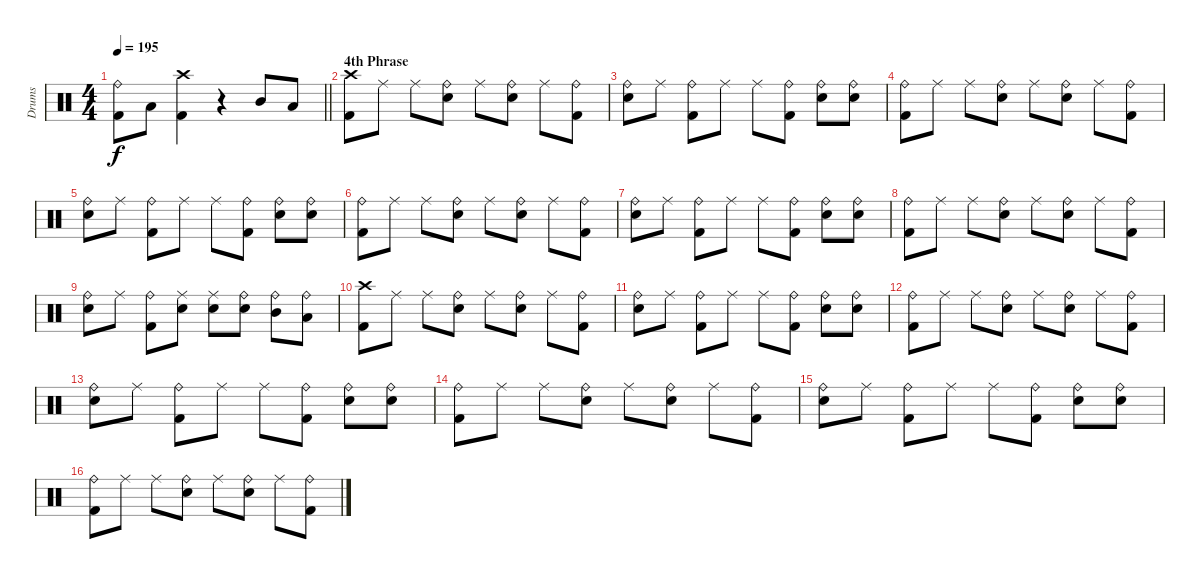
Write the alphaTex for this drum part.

\track ("Drums" "Drums") {instrument percussion}
\staff {score}
\articulation defaults
\ts (4 4)
\tempo 195
\clef neutral
\barLineRight lightlight
\ks c
("Ride (bell)" "Kick (hit) 2").8{dy f} "Low Floor Tom (hit)".8 ("Crash high (hit)" "Kick (hit) 2").4 r.4 "Mid Tom (hit)".8 "Low Floor Tom (hit)".8 |
\section ("" "4th Phrase")
("Crash high (hit)" "Kick (hit) 2").8 "Ride (middle)".8 "Ride (middle)".8 ("Ride (bell)" "Snare (hit) 2").8 "Ride (middle)".8 ("Ride (bell)" "Snare (hit) 2").8 "Ride (middle)".8 ("Ride (bell)" "Kick (hit) 2").8 |
("Ride (bell)" "Snare (hit) 2").8 "Ride (middle)".8 ("Ride (bell)" "Kick (hit) 2").8 "Ride (middle)".8 "Ride (middle)".8 ("Ride (bell)" "Kick (hit) 2").8 ("Ride (bell)" "Snare (hit) 2").8 ("Ride (bell)" "Snare (hit) 2").8 |
("Ride (bell)" "Kick (hit) 2").8 "Ride (middle)".8 "Ride (middle)".8 ("Ride (bell)" "Snare (hit) 2").8 "Ride (middle)".8 ("Ride (bell)" "Snare (hit) 2").8 "Ride (middle)".8 ("Ride (bell)" "Kick (hit) 2").8 |
("Ride (bell)" "Snare (hit) 2").8 "Ride (middle)".8 ("Ride (bell)" "Kick (hit) 2").8 "Ride (middle)".8 "Ride (middle)".8 ("Ride (bell)" "Kick (hit) 2").8 ("Ride (bell)" "Snare (hit) 2").8 ("Ride (bell)" "Snare (hit) 2").8 |
("Ride (bell)" "Kick (hit) 2").8 "Ride (middle)".8 "Ride (middle)".8 ("Ride (bell)" "Snare (hit) 2").8 "Ride (middle)".8 ("Ride (bell)" "Snare (hit) 2").8 "Ride (middle)".8 ("Ride (bell)" "Kick (hit) 2").8 |
("Ride (bell)" "Snare (hit) 2").8 "Ride (middle)".8 ("Ride (bell)" "Kick (hit) 2").8 "Ride (middle)".8 "Ride (middle)".8 ("Ride (bell)" "Kick (hit) 2").8 ("Ride (bell)" "Snare (hit) 2").8 ("Ride (bell)" "Snare (hit) 2").8 |
("Ride (bell)" "Kick (hit) 2").8 "Ride (middle)".8 "Ride (middle)".8 ("Ride (bell)" "Snare (hit) 2").8 "Ride (middle)".8 ("Ride (bell)" "Snare (hit) 2").8 "Ride (middle)".8 ("Ride (bell)" "Kick (hit) 2").8 |
("Ride (bell)" "Snare (hit) 2").8 "Ride (middle)".8 ("Ride (bell)" "Kick (hit) 2").8 ("Ride (middle)" "Snare (hit) 2").8 ("Ride (middle)" "Snare (hit) 2").8 ("Ride (bell)" "Snare (hit) 2").8 ("Ride (bell)" "Mid Tom (hit)").8 ("Ride (bell)" "Low Floor Tom (hit)").8 |
("Crash high (hit)" "Kick (hit) 2").8 "Ride (middle)".8 "Ride (middle)".8 ("Ride (bell)" "Snare (hit) 2").8 "Ride (middle)".8 ("Ride (bell)" "Snare (hit) 2").8 "Ride (middle)".8 ("Ride (bell)" "Kick (hit) 2").8 |
("Ride (bell)" "Snare (hit) 2").8 "Ride (middle)".8 ("Ride (bell)" "Kick (hit) 2").8 "Ride (middle)".8 "Ride (middle)".8 ("Ride (bell)" "Kick (hit) 2").8 ("Ride (bell)" "Snare (hit) 2").8 ("Ride (bell)" "Snare (hit) 2").8 |
("Ride (bell)" "Kick (hit) 2").8 "Ride (middle)".8 "Ride (middle)".8 ("Ride (bell)" "Snare (hit) 2").8 "Ride (middle)".8 ("Ride (bell)" "Snare (hit) 2").8 "Ride (middle)".8 ("Ride (bell)" "Kick (hit) 2").8 |
("Ride (bell)" "Snare (hit) 2").8 "Ride (middle)".8 ("Ride (bell)" "Kick (hit) 2").8 "Ride (middle)".8 "Ride (middle)".8 ("Ride (bell)" "Kick (hit) 2").8 ("Ride (bell)" "Snare (hit) 2").8 ("Ride (bell)" "Snare (hit) 2").8 |
("Ride (bell)" "Kick (hit) 2").8 "Ride (middle)".8 "Ride (middle)".8 ("Ride (bell)" "Snare (hit) 2").8 "Ride (middle)".8 ("Ride (bell)" "Snare (hit) 2").8 "Ride (middle)".8 ("Ride (bell)" "Kick (hit) 2").8 |
("Ride (bell)" "Snare (hit) 2").8 "Ride (middle)".8 ("Ride (bell)" "Kick (hit) 2").8 "Ride (middle)".8 "Ride (middle)".8 ("Ride (bell)" "Kick (hit) 2").8 ("Ride (bell)" "Snare (hit) 2").8 ("Ride (bell)" "Snare (hit) 2").8 |
("Ride (bell)" "Kick (hit) 2").8 "Ride (middle)".8 "Ride (middle)".8 ("Ride (bell)" "Snare (hit) 2").8 "Ride (middle)".8 ("Ride (bell)" "Snare (hit) 2").8 "Ride (middle)".8 ("Ride (bell)" "Kick (hit) 2").8
